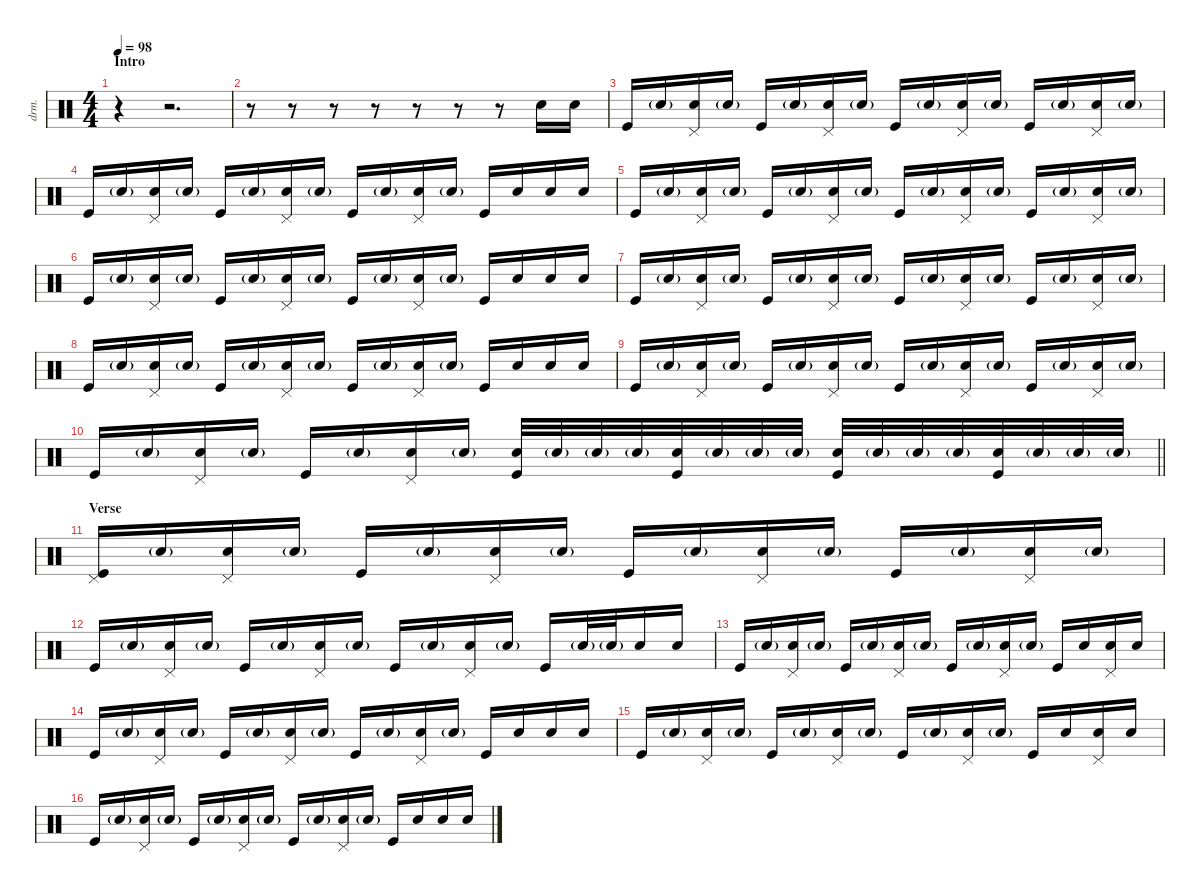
\defaultSystemsLayout 4
\hideDynamics
\bracketExtendMode nobrackets
\otherSystemsTrackNameOrientation horizontal
\track ("Duris Maxwell" "drm.") {instrument percussion}
\staff {score}
\articulation defaults
\ts (4 4)
\section ("" "Intro")
\tempo 98
\clef neutral
\ks c
r.4{dy f beam Down} r.2{d beam Down} |
r.8{beam Down} r.8{beam Down} r.8{beam Down} r.8{beam Down} r.8{beam Down} r.8{beam Down} r.8{beam Down} "Snare (hit) 2".16{beam Down} "Snare (hit) 2".16{beam Down} |
"Kick (hit)".16{beam Up} "Snare (hit) 2"{g}.16{beam Up} ("Pedal Hi-Hat (hit)" "Snare (hit) 2").16{beam Up} "Snare (hit) 2"{g}.16{beam Up} "Kick (hit)".16{beam Up} "Snare (hit) 2"{g}.16{beam Up} ("Pedal Hi-Hat (hit)" "Snare (hit) 2").16{beam Up} "Snare (hit) 2"{g}.16{beam Up} "Kick (hit)".16{beam Up} "Snare (hit) 2"{g}.16{beam Up} ("Pedal Hi-Hat (hit)" "Snare (hit) 2").16{beam Up} "Snare (hit) 2"{g}.16{beam Up} "Kick (hit)".16{beam Up} "Snare (hit) 2"{g}.16{beam Up} ("Pedal Hi-Hat (hit)" "Snare (hit) 2").16{beam Up} "Snare (hit) 2"{g}.16{beam Up} |
"Kick (hit)".16{beam Up} "Snare (hit) 2"{g}.16{beam Up} ("Pedal Hi-Hat (hit)" "Snare (hit) 2").16{beam Up} "Snare (hit) 2"{g}.16{beam Up} "Kick (hit)".16{beam Up} "Snare (hit) 2"{g}.16{beam Up} ("Pedal Hi-Hat (hit)" "Snare (hit) 2").16{beam Up} "Snare (hit) 2"{g}.16{beam Up} "Kick (hit)".16{beam Up} "Snare (hit) 2"{g}.16{beam Up} ("Pedal Hi-Hat (hit)" "Snare (hit) 2").16{beam Up} "Snare (hit) 2"{g}.16{beam Up} "Kick (hit)".16{beam Up} "Snare (hit) 2".16{beam Up} "Snare (hit) 2".16{beam Up} "Snare (hit) 2".16{beam Up} |
"Kick (hit)".16{beam Up} "Snare (hit) 2"{g}.16{beam Up} ("Pedal Hi-Hat (hit)" "Snare (hit) 2").16{beam Up} "Snare (hit) 2"{g}.16{beam Up} "Kick (hit)".16{beam Up} "Snare (hit) 2"{g}.16{beam Up} ("Pedal Hi-Hat (hit)" "Snare (hit) 2").16{beam Up} "Snare (hit) 2"{g}.16{beam Up} "Kick (hit)".16{beam Up} "Snare (hit) 2"{g}.16{beam Up} ("Pedal Hi-Hat (hit)" "Snare (hit) 2").16{beam Up} "Snare (hit) 2"{g}.16{beam Up} "Kick (hit)".16{beam Up} "Snare (hit) 2"{g}.16{beam Up} ("Pedal Hi-Hat (hit)" "Snare (hit) 2").16{beam Up} "Snare (hit) 2"{g}.16{beam Up} |
"Kick (hit)".16{beam Up} "Snare (hit) 2"{g}.16{beam Up} ("Pedal Hi-Hat (hit)" "Snare (hit) 2").16{beam Up} "Snare (hit) 2"{g}.16{beam Up} "Kick (hit)".16{beam Up} "Snare (hit) 2"{g}.16{beam Up} ("Pedal Hi-Hat (hit)" "Snare (hit) 2").16{beam Up} "Snare (hit) 2"{g}.16{beam Up} "Kick (hit)".16{beam Up} "Snare (hit) 2"{g}.16{beam Up} ("Pedal Hi-Hat (hit)" "Snare (hit) 2").16{beam Up} "Snare (hit) 2"{g}.16{beam Up} "Kick (hit)".16{beam Up} "Snare (hit) 2".16{beam Up} "Snare (hit) 2".16{beam Up} "Snare (hit) 2".16{beam Up} |
"Kick (hit)".16{beam Up} "Snare (hit) 2"{g}.16{beam Up} ("Pedal Hi-Hat (hit)" "Snare (hit) 2").16{beam Up} "Snare (hit) 2"{g}.16{beam Up} "Kick (hit)".16{beam Up} "Snare (hit) 2"{g}.16{beam Up} ("Pedal Hi-Hat (hit)" "Snare (hit) 2").16{beam Up} "Snare (hit) 2"{g}.16{beam Up} "Kick (hit)".16{beam Up} "Snare (hit) 2"{g}.16{beam Up} ("Pedal Hi-Hat (hit)" "Snare (hit) 2").16{beam Up} "Snare (hit) 2"{g}.16{beam Up} "Kick (hit)".16{beam Up} "Snare (hit) 2"{g}.16{beam Up} ("Pedal Hi-Hat (hit)" "Snare (hit) 2").16{beam Up} "Snare (hit) 2"{g}.16{beam Up} |
"Kick (hit)".16{beam Up} "Snare (hit) 2"{g}.16{beam Up} ("Pedal Hi-Hat (hit)" "Snare (hit) 2").16{beam Up} "Snare (hit) 2"{g}.16{beam Up} "Kick (hit)".16{beam Up} "Snare (hit) 2"{g}.16{beam Up} ("Pedal Hi-Hat (hit)" "Snare (hit) 2").16{beam Up} "Snare (hit) 2"{g}.16{beam Up} "Kick (hit)".16{beam Up} "Snare (hit) 2"{g}.16{beam Up} ("Pedal Hi-Hat (hit)" "Snare (hit) 2").16{beam Up} "Snare (hit) 2"{g}.16{beam Up} "Kick (hit)".16{beam Up} "Snare (hit) 2".16{beam Up} "Snare (hit) 2".16{beam Up} "Snare (hit) 2".16{beam Up} |
"Kick (hit)".16{beam Up} "Snare (hit) 2"{g}.16{beam Up} ("Pedal Hi-Hat (hit)" "Snare (hit) 2").16{beam Up} "Snare (hit) 2"{g}.16{beam Up} "Kick (hit)".16{beam Up} "Snare (hit) 2"{g}.16{beam Up} ("Pedal Hi-Hat (hit)" "Snare (hit) 2").16{beam Up} "Snare (hit) 2"{g}.16{beam Up} "Kick (hit)".16{beam Up} "Snare (hit) 2"{g}.16{beam Up} ("Pedal Hi-Hat (hit)" "Snare (hit) 2").16{beam Up} "Snare (hit) 2"{g}.16{beam Up} "Kick (hit)".16{beam Up} "Snare (hit) 2"{g}.16{beam Up} ("Pedal Hi-Hat (hit)" "Snare (hit) 2").16{beam Up} "Snare (hit) 2"{g}.16{beam Up} |
\barLineRight lightlight "Kick (hit)".16{beam Up} "Snare (hit) 2"{g}.16{beam Up}
("Pedal Hi-Hat (hit)" "Snare (hit) 2").16{beam Up} "Snare (hit) 2"{g}.16{beam Up} "Kick (hit)".16{beam Up} "Snare (hit) 2"{g}.16{beam Up} ("Pedal Hi-Hat (hit)" "Snare (hit) 2").16{beam Up} "Snare (hit) 2"{g}.16{beam Up} ("Snare (hit) 2" "Kick (hit)").32{beam Up} "Snare (hit) 2"{g}.32{beam Up} "Snare (hit) 2"{g}.32{beam Up} "Snare (hit) 2"{g}.32{beam Up} ("Snare (hit) 2" "Kick (hit)").32{beam Up} "Snare (hit) 2"{g}.32{beam Up} "Snare (hit) 2"{g}.32{beam Up} "Snare (hit) 2"{g}.32{beam Up} ("Snare (hit) 2" "Kick (hit)").32{beam Up} "Snare (hit) 2"{g}.32{beam Up} "Snare (hit) 2"{g}.32{beam Up} "Snare (hit) 2"{g}.32{beam Up} ("Snare (hit) 2" "Kick (hit)").32{beam Up} "Snare (hit) 2"{g}.32{beam Up} "Snare (hit) 2"{g}.32{beam Up} "Snare (hit) 2"{g}.32{beam Up} |
\section ("" "Verse")
("Pedal Hi-Hat (hit)" "Kick (hit)").16{beam Up} "Snare (hit) 2"{g}.16{beam Up} ("Pedal Hi-Hat (hit)" "Snare (hit) 2").16{beam Up} "Snare (hit) 2"{g}.16{beam Up} "Kick (hit)".16{beam Up} "Snare (hit) 2"{g}.16{beam Up} ("Pedal Hi-Hat (hit)" "Snare (hit) 2").16{beam Up} "Snare (hit) 2"{g}.16{beam Up} "Kick (hit)".16{beam Up} "Snare (hit) 2"{g}.16{beam Up} ("Pedal Hi-Hat (hit)" "Snare (hit) 2").16{beam Up} "Snare (hit) 2"{g}.16{beam Up} "Kick (hit)".16{beam Up} "Snare (hit) 2"{g}.16{beam Up} ("Pedal Hi-Hat (hit)" "Snare (hit) 2").16{beam Up} "Snare (hit) 2"{g}.16{beam Up} |
"Kick (hit)".16{beam Up} "Snare (hit) 2"{g}.16{beam Up} ("Pedal Hi-Hat (hit)" "Snare (hit) 2").16{beam Up} "Snare (hit) 2"{g}.16{beam Up} "Kick (hit)".16{beam Up} "Snare (hit) 2"{g}.16{beam Up} ("Pedal Hi-Hat (hit)" "Snare (hit) 2").16{beam Up} "Snare (hit) 2"{g}.16{beam Up} "Kick (hit)".16{beam Up} "Snare (hit) 2"{g}.16{beam Up} ("Pedal Hi-Hat (hit)" "Snare (hit) 2").16{beam Up} "Snare (hit) 2"{g}.16{beam Up} "Kick (hit)".16{beam Up} "Snare (hit) 2"{g}.32{beam Up} "Snare (hit) 2"{g}.32{beam Up} "Snare (hit) 2".16{beam Up} "Snare (hit) 2".16{beam Up} |
"Kick (hit)".16{beam Up} "Snare (hit) 2"{g}.16{beam Up} ("Pedal Hi-Hat (hit)" "Snare (hit) 2").16{beam Up} "Snare (hit) 2"{g}.16{beam Up} "Kick (hit)".16{beam Up} "Snare (hit) 2"{g}.16{beam Up} ("Pedal Hi-Hat (hit)" "Snare (hit) 2").16{beam Up} "Snare (hit) 2"{g}.16{beam Up} "Kick (hit)".16{beam Up} "Snare (hit) 2"{g}.16{beam Up} ("Pedal Hi-Hat (hit)" "Snare (hit) 2").16{beam Up} "Snare (hit) 2"{g}.16{beam Up} "Kick (hit)".16{beam Up} "Snare (hit) 2".16{beam Up} ("Pedal Hi-Hat (hit)" "Snare (hit) 2").16{beam Up} "Snare (hit) 2".16{beam Up} |
"Kick (hit)".16{beam Up} "Snare (hit) 2"{g}.16{beam Up} ("Pedal Hi-Hat (hit)" "Snare (hit) 2").16{beam Up} "Snare (hit) 2"{g}.16{beam Up} "Kick (hit)".16{beam Up} "Snare (hit) 2"{g}.16{beam Up} ("Pedal Hi-Hat (hit)" "Snare (hit) 2").16{beam Up} "Snare (hit) 2"{g}.16{beam Up} "Kick (hit)".16{beam Up} "Snare (hit) 2"{g}.16{beam Up} ("Pedal Hi-Hat (hit)" "Snare (hit) 2").16{beam Up} "Snare (hit) 2"{g}.16{beam Up} "Kick (hit)".16{beam Up} "Snare (hit) 2".16{beam Up} "Snare (hit) 2".16{beam Up} "Snare (hit) 2".16{beam Up} |
"Kick (hit)".16{beam Up} "Snare (hit) 2"{g}.16{beam Up} ("Pedal Hi-Hat (hit)" "Snare (hit) 2").16{beam Up} "Snare (hit) 2"{g}.16{beam Up} "Kick (hit)".16{beam Up} "Snare (hit) 2"{g}.16{beam Up} ("Pedal Hi-Hat (hit)" "Snare (hit) 2").16{beam Up} "Snare (hit) 2"{g}.16{beam Up} "Kick (hit)".16{beam Up} "Snare (hit) 2"{g}.16{beam Up} ("Pedal Hi-Hat (hit)" "Snare (hit) 2").16{beam Up} "Snare (hit) 2"{g}.16{beam Up} "Kick (hit)".16{beam Up} "Snare (hit) 2".16{beam Up} ("Pedal Hi-Hat (hit)" "Snare (hit) 2").16{beam Up} "Snare (hit) 2".16{beam Up} |
"Kick (hit)".16{beam Up} "Snare (hit) 2"{g}.16{beam Up} ("Pedal Hi-Hat (hit)" "Snare (hit) 2").16{beam Up} "Snare (hit) 2"{g}.16{beam Up} "Kick (hit)".16{beam Up} "Snare (hit) 2"{g}.16{beam Up} ("Pedal Hi-Hat (hit)" "Snare (hit) 2").16{beam Up} "Snare (hit) 2"{g}.16{beam Up} "Kick (hit)".16{beam Up} "Snare (hit) 2"{g}.16{beam Up} ("Pedal Hi-Hat (hit)" "Snare (hit) 2").16{beam Up} "Snare (hit) 2"{g}.16{beam Up} "Kick (hit)".16{beam Up} "Snare (hit) 2".16{beam Up} "Snare (hit) 2".16{beam Up} "Snare (hit) 2".16{beam Up}
